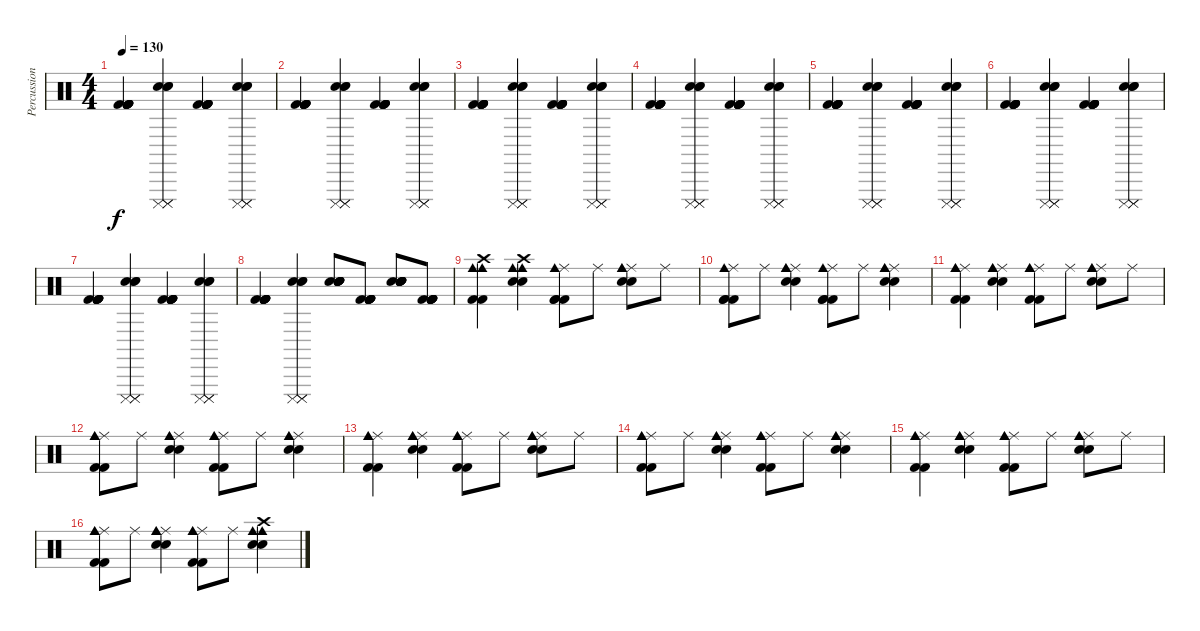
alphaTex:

\track ("Percussion" "Percussion") {instrument percussion}
\staff {score}
\articulation defaults
\ts (4 4)
\tempo 130
\clef neutral
\ks c
("Kick (hit) 2" "Kick (hit) 2" "Kick (hit) 2" "Kick (hit) 2" "Kick (hit) 2" "Kick (hit) 2").4{dy f} ("Electric Snare (hit)" "Cuica (mute)" "Electric Snare (hit)" "Cuica (mute)" "Electric Snare (hit)" "Cuica (mute)").4 ("Kick (hit) 2" "Kick (hit) 2" "Kick (hit) 2" "Kick (hit) 2" "Kick (hit) 2" "Kick (hit) 2").4 ("Electric Snare (hit)" "Cuica (mute)" "Electric Snare (hit)" "Cuica (mute)" "Electric Snare (hit)" "Cuica (mute)").4 |
("Kick (hit) 2" "Kick (hit) 2" "Kick (hit) 2" "Kick (hit) 2" "Kick (hit) 2" "Kick (hit) 2").4 ("Electric Snare (hit)" "Cuica (mute)" "Electric Snare (hit)" "Cuica (mute)" "Electric Snare (hit)" "Cuica (mute)").4 ("Kick (hit) 2" "Kick (hit) 2" "Kick (hit) 2" "Kick (hit) 2" "Kick (hit) 2" "Kick (hit) 2").4 ("Electric Snare (hit)" "Cuica (mute)" "Electric Snare (hit)" "Cuica (mute)" "Electric Snare (hit)" "Cuica (mute)").4 |
("Kick (hit) 2" "Kick (hit) 2" "Kick (hit) 2" "Kick (hit) 2" "Kick (hit) 2" "Kick (hit) 2").4 ("Electric Snare (hit)" "Cuica (mute)" "Electric Snare (hit)" "Cuica (mute)" "Electric Snare (hit)" "Cuica (mute)").4 ("Kick (hit) 2" "Kick (hit) 2" "Kick (hit) 2" "Kick (hit) 2" "Kick (hit) 2" "Kick (hit) 2").4 ("Electric Snare (hit)" "Cuica (mute)" "Electric Snare (hit)" "Cuica (mute)" "Electric Snare (hit)" "Cuica (mute)").4 |
("Kick (hit) 2" "Kick (hit) 2" "Kick (hit) 2" "Kick (hit) 2" "Kick (hit) 2" "Kick (hit) 2").4 ("Electric Snare (hit)" "Cuica (mute)" "Electric Snare (hit)" "Cuica (mute)" "Electric Snare (hit)" "Cuica (mute)").4 ("Kick (hit) 2" "Kick (hit) 2" "Kick (hit) 2" "Kick (hit) 2" "Kick (hit) 2" "Kick (hit) 2").4 ("Electric Snare (hit)" "Cuica (mute)" "Electric Snare (hit)" "Cuica (mute)" "Electric Snare (hit)" "Cuica (mute)").4 |
("Kick (hit) 2" "Kick (hit) 2" "Kick (hit) 2" "Kick (hit) 2" "Kick (hit) 2" "Kick (hit) 2").4 ("Electric Snare (hit)" "Cuica (mute)" "Electric Snare (hit)" "Cuica (mute)" "Electric Snare (hit)" "Cuica (mute)").4 ("Kick (hit) 2" "Kick (hit) 2" "Kick (hit) 2" "Kick (hit) 2" "Kick (hit) 2" "Kick (hit) 2").4 ("Electric Snare (hit)" "Cuica (mute)" "Electric Snare (hit)" "Cuica (mute)" "Electric Snare (hit)" "Cuica (mute)").4 |
("Kick (hit) 2" "Kick (hit) 2" "Kick (hit) 2" "Kick (hit) 2" "Kick (hit) 2" "Kick (hit) 2").4 ("Electric Snare (hit)" "Cuica (mute)" "Electric Snare (hit)" "Cuica (mute)" "Electric Snare (hit)" "Cuica (mute)").4 ("Kick (hit) 2" "Kick (hit) 2" "Kick (hit) 2" "Kick (hit) 2" "Kick (hit) 2" "Kick (hit) 2").4 ("Electric Snare (hit)" "Cuica (mute)" "Electric Snare (hit)" "Cuica (mute)" "Electric Snare (hit)" "Cuica (mute)").4 |
("Kick (hit) 2" "Kick (hit) 2" "Kick (hit) 2" "Kick (hit) 2" "Kick (hit) 2" "Kick (hit) 2").4 ("Electric Snare (hit)" "Cuica (mute)" "Electric Snare (hit)" "Cuica (mute)" "Electric Snare (hit)" "Cuica (mute)").4 ("Kick (hit) 2" "Kick (hit) 2" "Kick (hit) 2" "Kick (hit) 2" "Kick (hit) 2" "Kick (hit) 2").4 ("Electric Snare (hit)" "Cuica (mute)" "Electric Snare (hit)" "Cuica (mute)" "Electric Snare (hit)" "Cuica (mute)").4 |
("Kick (hit) 2" "Kick (hit) 2" "Kick (hit) 2" "Kick (hit) 2" "Kick (hit) 2" "Kick (hit) 2").4 ("Electric Snare (hit)" "Cuica (mute)" "Electric Snare (hit)" "Cuica (mute)" "Electric Snare (hit)" "Cuica (mute)").4 ("Electric Snare (hit)" "Electric Snare (hit)" "Electric Snare (hit)" "Electric Snare (hit)" "Electric Snare (hit)" "Electric Snare (hit)").8 ("Kick (hit) 2" "Kick (hit) 2" "Kick (hit) 2" "Kick (hit) 2" "Kick (hit) 2" "Kick (hit) 2").8 ("Electric Snare (hit)" "Electric Snare (hit)" "Electric Snare (hit)" "Electric Snare (hit)" "Electric Snare (hit)" "Electric Snare (hit)").8 ("Kick (hit) 2" "Kick (hit) 2" "Kick (hit) 2" "Kick (hit) 2" "Kick (hit) 2" "Kick (hit) 2").8 |
("Crash high (hit)" "Kick (hit) 2" "Cowbell medium (hit)" "Kick (hit) 2" "Cowbell medium (hit)").4{volume 16} ("Crash high (hit)" "Electric Snare (hit)" "Cowbell medium (hit)" "Electric Snare (hit)" "Cowbell medium (hit)").4 ("Ride (middle)" "Kick (hit) 2" "Cowbell medium (hit)" "Kick (hit) 2" "Kick (hit) 2").8 "Ride (middle)".8 ("Ride (middle)" "Electric Snare (hit)" "Cowbell medium (hit)" "Electric Snare (hit)" "Cowbell medium (hit)").8 "Ride (middle)".8 |
("Ride (middle)" "Kick (hit) 2" "Cowbell medium (hit)" "Kick (hit) 2" "Kick (hit) 2").8 "Ride (middle)".8 ("Ride (middle)" "Electric Snare (hit)" "Cowbell medium (hit)" "Electric Snare (hit)" "Cowbell medium (hit)").4 ("Ride (middle)" "Kick (hit) 2" "Cowbell medium (hit)" "Kick (hit) 2" "Kick (hit) 2").8 "Ride (middle)".8 ("Ride (middle)" "Electric Snare (hit)" "Cowbell medium (hit)" "Electric Snare (hit)" "Cowbell medium (hit)").4 |
("Ride (middle)" "Kick (hit) 2" "Cowbell medium (hit)" "Kick (hit) 2" "Cowbell medium (hit)").4 ("Ride (middle)" "Electric Snare (hit)" "Cowbell medium (hit)" "Electric Snare (hit)" "Cowbell medium (hit)").4 ("Ride (middle)" "Kick (hit) 2" "Cowbell medium (hit)" "Kick (hit) 2" "Cowbell medium (hit)").8 "Ride (middle)".8 ("Ride (middle)" "Electric Snare (hit)" "Cowbell medium (hit)" "Electric Snare (hit)" "Cowbell medium (hit)").8 "Ride (middle)".8 |
("Ride (middle)" "Kick (hit) 2" "Cowbell medium (hit)" "Kick (hit) 2" "Cowbell medium (hit)").8 "Ride (middle)".8 ("Ride (middle)" "Electric Snare (hit)" "Cowbell medium (hit)" "Electric Snare (hit)" "Cowbell medium (hit)").4 ("Ride (middle)" "Kick (hit) 2" "Cowbell medium (hit)" "Kick (hit) 2" "Cowbell medium (hit)").8 "Ride (middle)".8 ("Ride (middle)" "Electric Snare (hit)" "Cowbell medium (hit)" "Electric Snare (hit)" "Cowbell medium (hit)").4 |
("Ride (middle)" "Kick (hit) 2" "Cowbell medium (hit)" "Kick (hit) 2" "Cowbell medium (hit)").4 ("Ride (middle)" "Electric Snare (hit)" "Cowbell medium (hit)" "Electric Snare (hit)" "Cowbell medium (hit)").4 ("Ride (middle)" "Kick (hit) 2" "Cowbell medium (hit)" "Kick (hit) 2" "Cowbell medium (hit)").8 "Ride (middle)".8 ("Ride (middle)" "Electric Snare (hit)" "Cowbell medium (hit)" "Electric Snare (hit)" "Cowbell medium (hit)").8 "Ride (middle)".8 |
("Ride (middle)" "Kick (hit) 2" "Cowbell medium (hit)" "Kick (hit) 2" "Cowbell medium (hit)").8 "Ride (middle)".8 ("Ride (middle)" "Electric Snare (hit)" "Cowbell medium (hit)" "Electric Snare (hit)" "Cowbell medium (hit)").4 ("Ride (middle)" "Kick (hit) 2" "Cowbell medium (hit)" "Kick (hit) 2" "Cowbell medium (hit)").8 "Ride (middle)".8 ("Ride (middle)" "Electric Snare (hit)" "Cowbell medium (hit)" "Electric Snare (hit)" "Cowbell medium (hit)").4 |
("Ride (middle)" "Kick (hit) 2" "Cowbell medium (hit)" "Kick (hit) 2" "Cowbell medium (hit)").4 ("Ride (middle)" "Electric Snare (hit)" "Cowbell medium (hit)" "Electric Snare (hit)" "Cowbell medium (hit)").4 ("Ride (middle)" "Kick (hit) 2" "Cowbell medium (hit)" "Kick (hit) 2" "Cowbell medium (hit)").8 "Ride (middle)".8 ("Ride (middle)" "Electric Snare (hit)" "Cowbell medium (hit)" "Electric Snare (hit)" "Cowbell medium (hit)").8 "Ride (middle)".8 |
("Ride (middle)" "Kick (hit) 2" "Cowbell medium (hit)" "Kick (hit) 2" "Cowbell medium (hit)").8 "Ride (middle)".8 ("Ride (middle)" "Electric Snare (hit)" "Cowbell medium (hit)" "Electric Snare (hit)" "Cowbell medium (hit)").4 ("Ride (middle)" "Kick (hit) 2" "Cowbell medium (hit)" "Kick (hit) 2" "Cowbell medium (hit)").8 "Ride (middle)".8 ("Crash high (hit)" "Electric Snare (hit)" "Cowbell medium (hit)" "Electric Snare (hit)" "Cowbell medium (hit)").4
